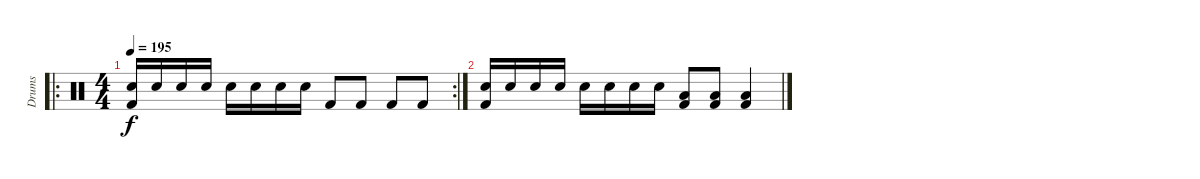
\track ("Drums" "Drums") {instrument percussion}
\staff {score}
\articulation defaults
\ro
\rc 2
\ts (4 4)
\tempo 195
\clef neutral
\ks c
("Electric Snare (hit)" "Kick (hit) 2").16{dy f} "Electric Snare (hit)".16 "Electric Snare (hit)".16 "Electric Snare (hit)".16 "Electric Snare (hit)".16 "Electric Snare (hit)".16 "Electric Snare (hit)".16 "Electric Snare (hit)".16 "Kick (hit) 2".8 "Kick (hit) 2".8 "Kick (hit) 2".8 "Kick (hit) 2".8 |
("Electric Snare (hit)" "Kick (hit) 2").16 "Electric Snare (hit)".16 "Electric Snare (hit)".16 "Electric Snare (hit)".16 "Electric Snare (hit)".16 "Electric Snare (hit)".16 "Electric Snare (hit)".16 "Electric Snare (hit)".16 ("Low Floor Tom (hit)" "Kick (hit) 2").8 ("Low Floor Tom (hit)" "Kick (hit) 2").8 ("Low Floor Tom (hit)" "Kick (hit) 2").4
